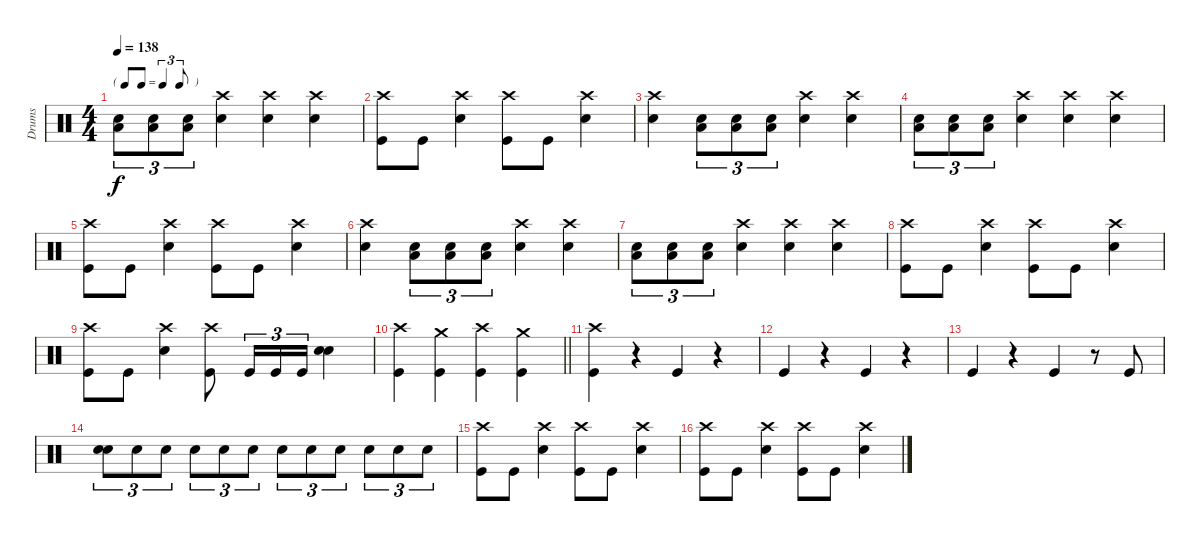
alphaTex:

\track ("Drums" "Drums") {instrument percussion}
\staff {score}
\articulation defaults
\ts (4 4)
\tf triplet8th
\tempo 138
\clef neutral
\ks c
("Low Tom (hit)" "Snare (hit) 2").8{tu (3 2) dy f} ("Low Tom (hit)" "Snare (hit) 2").8{tu (3 2)} ("Low Tom (hit)" "Snare (hit) 2").8{tu (3 2)} ("Crash high (hit)" "Snare (hit) 2").4 ("Crash high (hit)" "Snare (hit) 2").4 ("Crash high (hit)" "Snare (hit) 2").4 |
("Crash high (hit)" "Kick (hit)").8 "Kick (hit)".8 ("Crash high (hit)" "Snare (hit) 2").4 ("Crash high (hit)" "Kick (hit)").8 "Kick (hit)".8 ("Crash high (hit)" "Snare (hit) 2").4 |
("Crash high (hit)" "Snare (hit) 2").4 ("Low Tom (hit)" "Snare (hit) 2").8{tu (3 2)} ("Low Tom (hit)" "Snare (hit) 2").8{tu (3 2)} ("Low Tom (hit)" "Snare (hit) 2").8{tu (3 2)} ("Crash high (hit)" "Snare (hit) 2").4 ("Crash high (hit)" "Snare (hit) 2").4 |
("Low Tom (hit)" "Snare (hit) 2").8{tu (3 2)} ("Low Tom (hit)" "Snare (hit) 2").8{tu (3 2)} ("Low Tom (hit)" "Snare (hit) 2").8{tu (3 2)} ("Crash high (hit)" "Snare (hit) 2").4 ("Crash high (hit)" "Snare (hit) 2").4 ("Crash high (hit)" "Snare (hit) 2").4 |
("Crash high (hit)" "Kick (hit)").8 "Kick (hit)".8 ("Crash high (hit)" "Snare (hit) 2").4 ("Crash high (hit)" "Kick (hit)").8 "Kick (hit)".8 ("Crash high (hit)" "Snare (hit) 2").4 |
("Crash high (hit)" "Snare (hit) 2").4 ("Low Tom (hit)" "Snare (hit) 2").8{tu (3 2)} ("Low Tom (hit)" "Snare (hit) 2").8{tu (3 2)} ("Low Tom (hit)" "Snare (hit) 2").8{tu (3 2)} ("Crash high (hit)" "Snare (hit) 2").4 ("Crash high (hit)" "Snare (hit) 2").4 |
("Low Tom (hit)" "Snare (hit) 2").8{tu (3 2)} ("Low Tom (hit)" "Snare (hit) 2").8{tu (3 2)} ("Low Tom (hit)" "Snare (hit) 2").8{tu (3 2)} ("Crash high (hit)" "Snare (hit) 2").4 ("Crash high (hit)" "Snare (hit) 2").4 ("Crash high (hit)" "Snare (hit) 2").4 |
("Crash high (hit)" "Kick (hit)").8 "Kick (hit)".8 ("Crash high (hit)" "Snare (hit) 2").4 ("Crash high (hit)" "Kick (hit)").8 "Kick (hit)".8 ("Crash high (hit)" "Snare (hit) 2").4 |
("Crash high (hit)" "Kick (hit)").8 "Kick (hit)".8 ("Crash high (hit)" "Snare (hit) 2").4 ("Crash high (hit)" "Kick (hit)").8 "Kick (hit)".16{tu (3 2)} "Kick (hit)".16{tu (3 2)} "Kick (hit)".16{tu (3 2)} ("Snare (hit) 2" "Snare (hit) 2").4{bd 240} |
\barLineRight lightlight
("Crash high (hit)" "Kick (hit)").4 ("Crash medium (hit)" "Kick (hit)").4 ("Crash high (hit)" "Kick (hit)").4 ("Crash medium (hit)" "Kick (hit)").4 |
("Crash high (hit)" "Kick (hit)").4 r.4 "Kick (hit)".4 r.4 |
"Kick (hit)".4 r.4 "Kick (hit)".4 r.4 |
"Kick (hit)".4 r.4 "Kick (hit)".4 r.8 "Kick (hit)".8 |
("Snare (hit) 2" "Snare (hit) 2").8{tu (3 2) bd 240} "Snare (hit) 2".8{tu (3 2)} "Snare (hit) 2".8{tu (3 2)} "Snare (hit) 2".8{tu (3 2)} "Snare (hit) 2".8{tu (3 2)} "Snare (hit) 2".8{tu (3 2)} "Snare (hit) 2".8{tu (3 2)} "Snare (hit) 2".8{tu (3 2)} "Snare (hit) 2".8{tu (3 2)} "Snare (hit) 2".8{tu (3 2)} "Snare (hit) 2".8{tu (3 2)} "Snare (hit) 2".8{tu (3 2)} |
("Crash high (hit)" "Kick (hit)").8 "Kick (hit)".8 ("Crash high (hit)" "Snare (hit) 2").4 ("Crash high (hit)" "Kick (hit)").8 "Kick (hit)".8 ("Crash high (hit)" "Snare (hit) 2").4 |
("Crash high (hit)" "Kick (hit)").8 "Kick (hit)".8 ("Crash high (hit)" "Snare (hit) 2").4 ("Crash high (hit)" "Kick (hit)").8 "Kick (hit)".8 ("Crash high (hit)" "Snare (hit) 2").4
